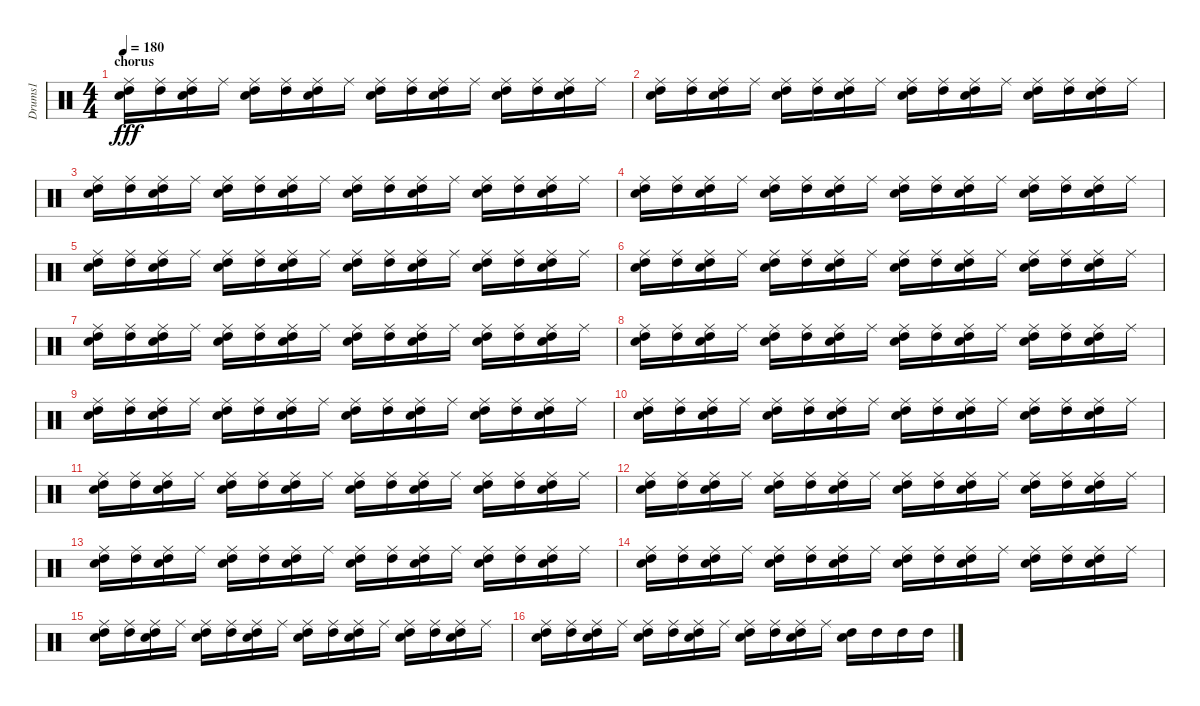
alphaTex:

\track ("Drums1" "Drums1") {instrument percussion}
\staff {score}
\articulation defaults
\ts (4 4)
\section ("" "chorus")
\tempo 180
\clef neutral
\ks c
("Electric Snare (hit)" "Ride (middle)" "High Tom (hit)").16{dy fff} ("Ride (middle)" "High Tom (hit)").16 ("Electric Snare (hit)" "Ride (middle)" "High Tom (hit)").16 "Ride (middle)".16 ("Electric Snare (hit)" "Ride (middle)" "High Tom (hit)").16 ("Ride (middle)" "High Tom (hit)").16 ("Electric Snare (hit)" "Ride (middle)" "High Tom (hit)").16 "Ride (middle)".16 ("Electric Snare (hit)" "Ride (middle)" "High Tom (hit)").16 ("Ride (middle)" "High Tom (hit)").16 ("Electric Snare (hit)" "Ride (middle)" "High Tom (hit)").16 "Ride (middle)".16 ("Electric Snare (hit)" "Ride (middle)" "High Tom (hit)").16 ("Ride (middle)" "High Tom (hit)").16 ("Electric Snare (hit)" "Ride (middle)" "High Tom (hit)").16 "Ride (middle)".16 |
("Electric Snare (hit)" "Ride (middle)" "High Tom (hit)").16 ("Ride (middle)" "High Tom (hit)").16 ("Electric Snare (hit)" "Ride (middle)" "High Tom (hit)").16 "Ride (middle)".16 ("Electric Snare (hit)" "Ride (middle)" "High Tom (hit)").16 ("Ride (middle)" "High Tom (hit)").16 ("Electric Snare (hit)" "Ride (middle)" "High Tom (hit)").16 "Ride (middle)".16 ("Electric Snare (hit)" "Ride (middle)" "High Tom (hit)").16 ("Ride (middle)" "High Tom (hit)").16 ("Electric Snare (hit)" "Ride (middle)" "High Tom (hit)").16 "Ride (middle)".16 ("Electric Snare (hit)" "Ride (middle)" "High Tom (hit)").16 ("Ride (middle)" "High Tom (hit)").16 ("Electric Snare (hit)" "Ride (middle)" "High Tom (hit)").16 "Ride (middle)".16 |
("Electric Snare (hit)" "Ride (middle)" "High Tom (hit)").16 ("Ride (middle)" "High Tom (hit)").16 ("Electric Snare (hit)" "Ride (middle)" "High Tom (hit)").16 "Ride (middle)".16 ("Electric Snare (hit)" "Ride (middle)" "High Tom (hit)").16 ("Ride (middle)" "High Tom (hit)").16 ("Electric Snare (hit)" "Ride (middle)" "High Tom (hit)").16 "Ride (middle)".16 ("Electric Snare (hit)" "Ride (middle)" "High Tom (hit)").16 ("Ride (middle)" "High Tom (hit)").16 ("Electric Snare (hit)" "Ride (middle)" "High Tom (hit)").16 "Ride (middle)".16 ("Electric Snare (hit)" "Ride (middle)" "High Tom (hit)").16 ("Ride (middle)" "High Tom (hit)").16 ("Electric Snare (hit)" "Ride (middle)" "High Tom (hit)").16 "Ride (middle)".16 |
("Electric Snare (hit)" "Ride (middle)" "High Tom (hit)").16 ("Ride (middle)" "High Tom (hit)").16 ("Electric Snare (hit)" "Ride (middle)" "High Tom (hit)").16 "Ride (middle)".16 ("Electric Snare (hit)" "Ride (middle)" "High Tom (hit)").16 ("Ride (middle)" "High Tom (hit)").16 ("Electric Snare (hit)" "Ride (middle)" "High Tom (hit)").16 "Ride (middle)".16 ("Electric Snare (hit)" "Ride (middle)" "High Tom (hit)").16 ("Ride (middle)" "High Tom (hit)").16 ("Electric Snare (hit)" "Ride (middle)" "High Tom (hit)").16 "Ride (middle)".16 ("Electric Snare (hit)" "Ride (middle)" "High Tom (hit)").16 ("Ride (middle)" "High Tom (hit)").16 ("Electric Snare (hit)" "Ride (middle)" "High Tom (hit)").16 "Ride (middle)".16 |
("Electric Snare (hit)" "Ride (middle)" "High Tom (hit)").16 ("Ride (middle)" "High Tom (hit)").16 ("Electric Snare (hit)" "Ride (middle)" "High Tom (hit)").16 "Ride (middle)".16 ("Electric Snare (hit)" "Ride (middle)" "High Tom (hit)").16 ("Ride (middle)" "High Tom (hit)").16 ("Electric Snare (hit)" "Ride (middle)" "High Tom (hit)").16 "Ride (middle)".16 ("Electric Snare (hit)" "Ride (middle)" "High Tom (hit)").16 ("Ride (middle)" "High Tom (hit)").16 ("Electric Snare (hit)" "Ride (middle)" "High Tom (hit)").16 "Ride (middle)".16 ("Electric Snare (hit)" "Ride (middle)" "High Tom (hit)").16 ("Ride (middle)" "High Tom (hit)").16 ("Electric Snare (hit)" "Ride (middle)" "High Tom (hit)").16 "Ride (middle)".16 |
("Electric Snare (hit)" "Ride (middle)" "High Tom (hit)").16 ("Ride (middle)" "High Tom (hit)").16 ("Electric Snare (hit)" "Ride (middle)" "High Tom (hit)").16 "Ride (middle)".16 ("Electric Snare (hit)" "Ride (middle)" "High Tom (hit)").16 ("Ride (middle)" "High Tom (hit)").16 ("Electric Snare (hit)" "Ride (middle)" "High Tom (hit)").16 "Ride (middle)".16 ("Electric Snare (hit)" "Ride (middle)" "High Tom (hit)").16 ("Ride (middle)" "High Tom (hit)").16 ("Electric Snare (hit)" "Ride (middle)" "High Tom (hit)").16 "Ride (middle)".16 ("Electric Snare (hit)" "Ride (middle)" "High Tom (hit)").16 ("Ride (middle)" "High Tom (hit)").16 ("Electric Snare (hit)" "Ride (middle)" "High Tom (hit)").16 "Ride (middle)".16 |
("Electric Snare (hit)" "Ride (middle)" "High Tom (hit)").16 ("Ride (middle)" "High Tom (hit)").16 ("Electric Snare (hit)" "Ride (middle)" "High Tom (hit)").16 "Ride (middle)".16 ("Electric Snare (hit)" "Ride (middle)" "High Tom (hit)").16 ("Ride (middle)" "High Tom (hit)").16 ("Electric Snare (hit)" "Ride (middle)" "High Tom (hit)").16 "Ride (middle)".16 ("Electric Snare (hit)" "Ride (middle)" "High Tom (hit)").16 ("Ride (middle)" "High Tom (hit)").16 ("Electric Snare (hit)" "Ride (middle)" "High Tom (hit)").16 "Ride (middle)".16 ("Electric Snare (hit)" "Ride (middle)" "High Tom (hit)").16 ("Ride (middle)" "High Tom (hit)").16 ("Electric Snare (hit)" "Ride (middle)" "High Tom (hit)").16 "Ride (middle)".16 |
("Electric Snare (hit)" "Ride (middle)" "High Tom (hit)").16 ("Ride (middle)" "High Tom (hit)").16 ("Electric Snare (hit)" "Ride (middle)" "High Tom (hit)").16 "Ride (middle)".16 ("Electric Snare (hit)" "Ride (middle)" "High Tom (hit)").16 ("Ride (middle)" "High Tom (hit)").16 ("Electric Snare (hit)" "Ride (middle)" "High Tom (hit)").16 "Ride (middle)".16 ("Electric Snare (hit)" "Ride (middle)" "High Tom (hit)").16 ("Ride (middle)" "High Tom (hit)").16 ("Electric Snare (hit)" "Ride (middle)" "High Tom (hit)").16 "Ride (middle)".16 ("Electric Snare (hit)" "Ride (middle)" "High Tom (hit)").16 ("Ride (middle)" "High Tom (hit)").16 ("Electric Snare (hit)" "Ride (middle)" "High Tom (hit)").16 "Ride (middle)".16 |
("Electric Snare (hit)" "Ride (middle)" "High Tom (hit)").16 ("Ride (middle)" "High Tom (hit)").16 ("Electric Snare (hit)" "Ride (middle)" "High Tom (hit)").16 "Ride (middle)".16 ("Electric Snare (hit)" "Ride (middle)" "High Tom (hit)").16 ("Ride (middle)" "High Tom (hit)").16 ("Electric Snare (hit)" "Ride (middle)" "High Tom (hit)").16 "Ride (middle)".16 ("Electric Snare (hit)" "Ride (middle)" "High Tom (hit)").16 ("Ride (middle)" "High Tom (hit)").16 ("Electric Snare (hit)" "Ride (middle)" "High Tom (hit)").16 "Ride (middle)".16 ("Electric Snare (hit)" "Ride (middle)" "High Tom (hit)").16 ("Ride (middle)" "High Tom (hit)").16 ("Electric Snare (hit)" "Ride (middle)" "High Tom (hit)").16 "Ride (middle)".16 |
("Electric Snare (hit)" "Ride (middle)" "High Tom (hit)").16 ("Ride (middle)" "High Tom (hit)").16 ("Electric Snare (hit)" "Ride (middle)" "High Tom (hit)").16 "Ride (middle)".16 ("Electric Snare (hit)" "Ride (middle)" "High Tom (hit)").16 ("Ride (middle)" "High Tom (hit)").16 ("Electric Snare (hit)" "Ride (middle)" "High Tom (hit)").16 "Ride (middle)".16 ("Electric Snare (hit)" "Ride (middle)" "High Tom (hit)").16 ("Ride (middle)" "High Tom (hit)").16 ("Electric Snare (hit)" "Ride (middle)" "High Tom (hit)").16 "Ride (middle)".16 ("Electric Snare (hit)" "Ride (middle)" "High Tom (hit)").16 ("Ride (middle)" "High Tom (hit)").16 ("Electric Snare (hit)" "Ride (middle)" "High Tom (hit)").16 "Ride (middle)".16 |
("Electric Snare (hit)" "Ride (middle)" "High Tom (hit)").16 ("Ride (middle)" "High Tom (hit)").16 ("Electric Snare (hit)" "Ride (middle)" "High Tom (hit)").16 "Ride (middle)".16 ("Electric Snare (hit)" "Ride (middle)" "High Tom (hit)").16 ("Ride (middle)" "High Tom (hit)").16 ("Electric Snare (hit)" "Ride (middle)" "High Tom (hit)").16 "Ride (middle)".16 ("Electric Snare (hit)" "Ride (middle)" "High Tom (hit)").16 ("Ride (middle)" "High Tom (hit)").16 ("Electric Snare (hit)" "Ride (middle)" "High Tom (hit)").16 "Ride (middle)".16 ("Electric Snare (hit)" "Ride (middle)" "High Tom (hit)").16 ("Ride (middle)" "High Tom (hit)").16 ("Electric Snare (hit)" "Ride (middle)" "High Tom (hit)").16 "Ride (middle)".16 |
("Electric Snare (hit)" "Ride (middle)" "High Tom (hit)").16 ("Ride (middle)" "High Tom (hit)").16 ("Electric Snare (hit)" "Ride (middle)" "High Tom (hit)").16 "Ride (middle)".16 ("Electric Snare (hit)" "Ride (middle)" "High Tom (hit)").16 ("Ride (middle)" "High Tom (hit)").16 ("Electric Snare (hit)" "Ride (middle)" "High Tom (hit)").16 "Ride (middle)".16 ("Electric Snare (hit)" "Ride (middle)" "High Tom (hit)").16 ("Ride (middle)" "High Tom (hit)").16 ("Electric Snare (hit)" "Ride (middle)" "High Tom (hit)").16 "Ride (middle)".16 ("Electric Snare (hit)" "Ride (middle)" "High Tom (hit)").16 ("Ride (middle)" "High Tom (hit)").16 ("Electric Snare (hit)" "Ride (middle)" "High Tom (hit)").16 "Ride (middle)".16 |
("Electric Snare (hit)" "Ride (middle)" "High Tom (hit)").16 ("Ride (middle)" "High Tom (hit)").16 ("Electric Snare (hit)" "Ride (middle)" "High Tom (hit)").16 "Ride (middle)".16 ("Electric Snare (hit)" "Ride (middle)" "High Tom (hit)").16 ("Ride (middle)" "High Tom (hit)").16 ("Electric Snare (hit)" "Ride (middle)" "High Tom (hit)").16 "Ride (middle)".16 ("Electric Snare (hit)" "Ride (middle)" "High Tom (hit)").16 ("Ride (middle)" "High Tom (hit)").16 ("Electric Snare (hit)" "Ride (middle)" "High Tom (hit)").16 "Ride (middle)".16 ("Electric Snare (hit)" "Ride (middle)" "High Tom (hit)").16 ("Ride (middle)" "High Tom (hit)").16 ("Electric Snare (hit)" "Ride (middle)" "High Tom (hit)").16 "Ride (middle)".16 |
("Electric Snare (hit)" "Ride (middle)" "High Tom (hit)").16 ("Ride (middle)" "High Tom (hit)").16 ("Electric Snare (hit)" "Ride (middle)" "High Tom (hit)").16 "Ride (middle)".16 ("Electric Snare (hit)" "Ride (middle)" "High Tom (hit)").16 ("Ride (middle)" "High Tom (hit)").16 ("Electric Snare (hit)" "Ride (middle)" "High Tom (hit)").16 "Ride (middle)".16 ("Electric Snare (hit)" "Ride (middle)" "High Tom (hit)").16 ("Ride (middle)" "High Tom (hit)").16 ("Electric Snare (hit)" "Ride (middle)" "High Tom (hit)").16 "Ride (middle)".16 ("Electric Snare (hit)" "Ride (middle)" "High Tom (hit)").16 ("Ride (middle)" "High Tom (hit)").16 ("Electric Snare (hit)" "Ride (middle)" "High Tom (hit)").16 "Ride (middle)".16 |
("Electric Snare (hit)" "Ride (middle)" "High Tom (hit)").16 ("Ride (middle)" "High Tom (hit)").16 ("Electric Snare (hit)" "Ride (middle)" "High Tom (hit)").16 "Ride (middle)".16 ("Electric Snare (hit)" "Ride (middle)" "High Tom (hit)").16 ("Ride (middle)" "High Tom (hit)").16 ("Electric Snare (hit)" "Ride (middle)" "High Tom (hit)").16 "Ride (middle)".16 ("Electric Snare (hit)" "Ride (middle)" "High Tom (hit)").16 ("Ride (middle)" "High Tom (hit)").16 ("Electric Snare (hit)" "Ride (middle)" "High Tom (hit)").16 "Ride (middle)".16 ("Electric Snare (hit)" "Ride (middle)" "High Tom (hit)").16 ("Ride (middle)" "High Tom (hit)").16 ("Electric Snare (hit)" "Ride (middle)" "High Tom (hit)").16 "Ride (middle)".16 |
("Electric Snare (hit)" "Ride (middle)" "High Tom (hit)").16 ("Ride (middle)" "High Tom (hit)").16 ("Electric Snare (hit)" "Ride (middle)" "High Tom (hit)").16 "Ride (middle)".16 ("Electric Snare (hit)" "Ride (middle)" "High Tom (hit)").16 ("Ride (middle)" "High Tom (hit)").16 ("Electric Snare (hit)" "Ride (middle)" "High Tom (hit)").16 "Ride (middle)".16 ("Electric Snare (hit)" "Ride (middle)" "High Tom (hit)").16 ("Ride (middle)" "High Tom (hit)").16 ("Electric Snare (hit)" "Ride (middle)" "High Tom (hit)").16 "Ride (middle)".16 ("Electric Snare (hit)" "High Tom (hit)").16 "High Tom (hit)".16 "High Tom (hit)".16 "High Tom (hit)".16
